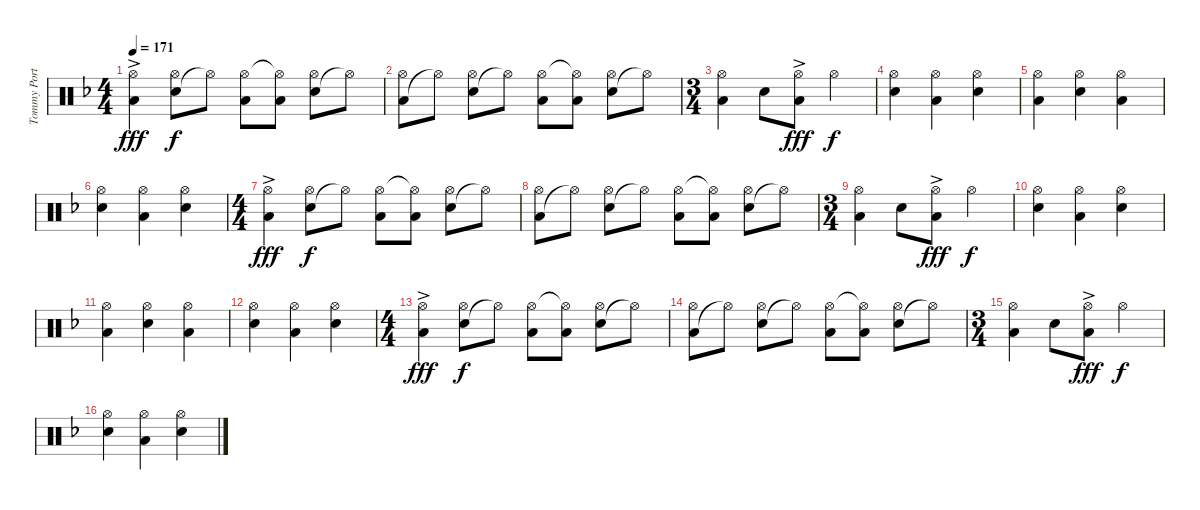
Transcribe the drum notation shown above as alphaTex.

\track ("Tommy Portino" "Tommy Port") {instrument percussion}
\staff {score}
\articulation defaults
\ts (4 4)
\tempo 171
\clef neutral
\ks dminor
("Low Floor Tom (hit)"{ac} "Hi-Hat (open)").4{dy fff} ("Electric Snare (hit)" "Hi-Hat (open)").8{dy f} "Hi-Hat (open)"{t}.8 ("Low Floor Tom (hit)" "Hi-Hat (open)").8 ("Low Floor Tom (hit)" "Hi-Hat (open)"{t}).8 ("Electric Snare (hit)" "Hi-Hat (open)").8 "Hi-Hat (open)"{t}.8 |
("Low Floor Tom (hit)" "Hi-Hat (open)").8 "Hi-Hat (open)"{t}.8 ("Electric Snare (hit)" "Hi-Hat (open)").8 "Hi-Hat (open)"{t}.8 ("Low Floor Tom (hit)" "Hi-Hat (open)").8 ("Low Floor Tom (hit)" "Hi-Hat (open)"{t}).8 ("Electric Snare (hit)" "Hi-Hat (open)").8 "Hi-Hat (open)"{t}.8 |
\ts (3 4)
("Low Floor Tom (hit)" "Hi-Hat (open)").4 "Electric Snare (hit)".8 ("Low Floor Tom (hit)" "Hi-Hat (open)"{ac}).8{dy fff} "Hi-Hat (open)".4{dy f} |
("Electric Snare (hit)" "Hi-Hat (open)").4 ("Low Floor Tom (hit)" "Hi-Hat (open)").4 ("Electric Snare (hit)" "Hi-Hat (open)").4 |
("Low Floor Tom (hit)" "Hi-Hat (open)").4 ("Electric Snare (hit)" "Hi-Hat (open)").4 ("Low Floor Tom (hit)" "Hi-Hat (open)").4 |
("Electric Snare (hit)" "Hi-Hat (open)").4 ("Low Floor Tom (hit)" "Hi-Hat (open)").4 ("Electric Snare (hit)" "Hi-Hat (open)").4 |
\ts (4 4)
("Low Floor Tom (hit)"{ac} "Hi-Hat (open)").4{dy fff} ("Electric Snare (hit)" "Hi-Hat (open)").8{dy f} "Hi-Hat (open)"{t}.8 ("Low Floor Tom (hit)" "Hi-Hat (open)").8 ("Low Floor Tom (hit)" "Hi-Hat (open)"{t}).8 ("Electric Snare (hit)" "Hi-Hat (open)").8 "Hi-Hat (open)"{t}.8 |
("Low Floor Tom (hit)" "Hi-Hat (open)").8 "Hi-Hat (open)"{t}.8 ("Electric Snare (hit)" "Hi-Hat (open)").8 "Hi-Hat (open)"{t}.8 ("Low Floor Tom (hit)" "Hi-Hat (open)").8 ("Low Floor Tom (hit)" "Hi-Hat (open)"{t}).8 ("Electric Snare (hit)" "Hi-Hat (open)").8 "Hi-Hat (open)"{t}.8 |
\ts (3 4)
("Low Floor Tom (hit)" "Hi-Hat (open)").4 "Electric Snare (hit)".8 ("Low Floor Tom (hit)" "Hi-Hat (open)"{ac}).8{dy fff} "Hi-Hat (open)".4{dy f} |
("Electric Snare (hit)" "Hi-Hat (open)").4 ("Low Floor Tom (hit)" "Hi-Hat (open)").4 ("Electric Snare (hit)" "Hi-Hat (open)").4 |
("Low Floor Tom (hit)" "Hi-Hat (open)").4 ("Electric Snare (hit)" "Hi-Hat (open)").4 ("Low Floor Tom (hit)" "Hi-Hat (open)").4 |
("Electric Snare (hit)" "Hi-Hat (open)").4 ("Low Floor Tom (hit)" "Hi-Hat (open)").4 ("Electric Snare (hit)" "Hi-Hat (open)").4 |
\ts (4 4)
("Low Floor Tom (hit)"{ac} "Hi-Hat (open)").4{dy fff} ("Electric Snare (hit)" "Hi-Hat (open)").8{dy f} "Hi-Hat (open)"{t}.8 ("Low Floor Tom (hit)" "Hi-Hat (open)").8 ("Low Floor Tom (hit)" "Hi-Hat (open)"{t}).8 ("Electric Snare (hit)" "Hi-Hat (open)").8 "Hi-Hat (open)"{t}.8 |
("Low Floor Tom (hit)" "Hi-Hat (open)").8 "Hi-Hat (open)"{t}.8 ("Electric Snare (hit)" "Hi-Hat (open)").8 "Hi-Hat (open)"{t}.8 ("Low Floor Tom (hit)" "Hi-Hat (open)").8 ("Low Floor Tom (hit)" "Hi-Hat (open)"{t}).8 ("Electric Snare (hit)" "Hi-Hat (open)").8 "Hi-Hat (open)"{t}.8 |
\ts (3 4)
("Low Floor Tom (hit)" "Hi-Hat (open)").4 "Electric Snare (hit)".8 ("Low Floor Tom (hit)" "Hi-Hat (open)"{ac}).8{dy fff} "Hi-Hat (open)".4{dy f} |
("Electric Snare (hit)" "Hi-Hat (open)").4 ("Low Floor Tom (hit)" "Hi-Hat (open)").4 ("Electric Snare (hit)" "Hi-Hat (open)").4
